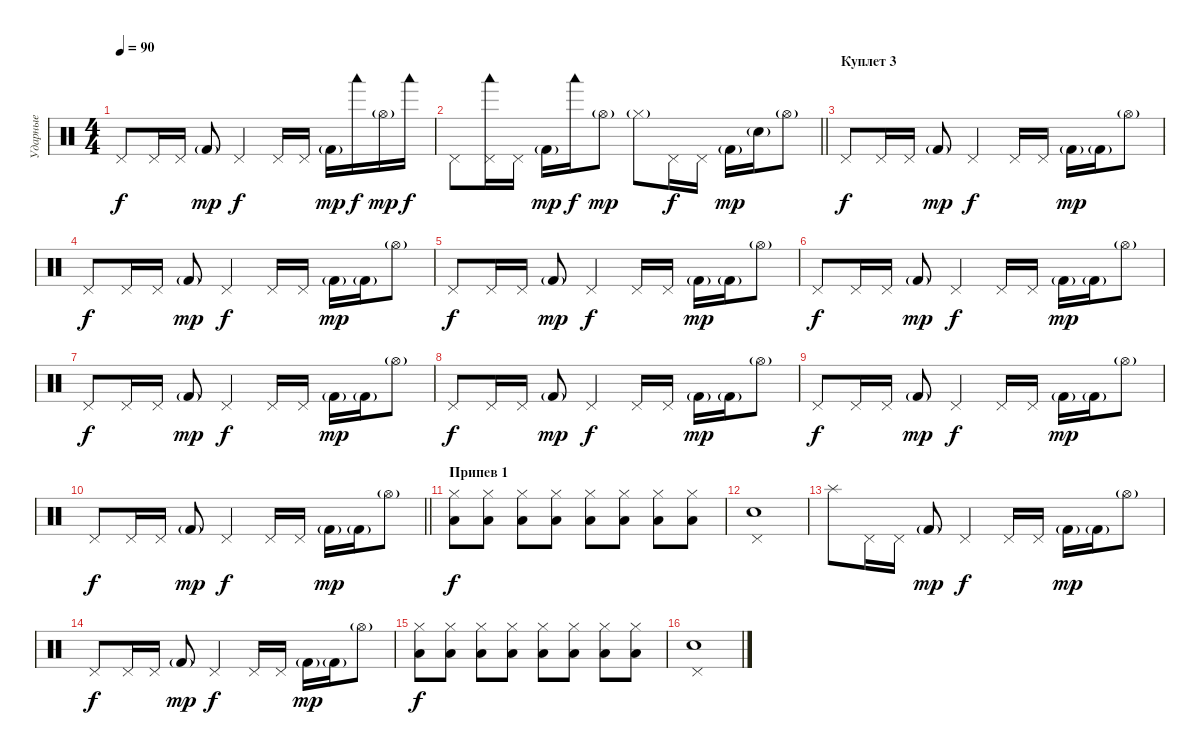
\track ("Ударные" "Ударные") {instrument percussion}
\staff {score}
\articulation defaults
\ts (4 4)
\tempo 90
\clef neutral
\ks c "Pedal Hi-Hat (hit)".8{dy f} "Pedal Hi-Hat (hit)".16 "Pedal Hi-Hat (hit)".16 "Kick (hit) 2"{g}.8{dy mp} "Pedal Hi-Hat (hit)".4{dy f} "Pedal Hi-Hat (hit)".16 "Pedal Hi-Hat (hit)".16 "Kick (hit) 2"{g}.16{dy mp} "Woodblock low (hit)".16{dy f} "Hi-Hat (open)"{g}.16{dy mp} "Woodblock low (hit)".16{dy f}
|
\barLineRight lightlight "Pedal Hi-Hat (hit)".8
("Woodblock low (hit)" "Pedal Hi-Hat (hit)").16 "Pedal Hi-Hat (hit)".16 "Kick (hit) 2"{g}.16{dy mp} "Woodblock low (hit)".16{dy f} "Hi-Hat (open)"{g}.8{dy mp} "Hi-Hat (closed)"{g}.8 "Pedal Hi-Hat (hit)".16{dy f} "Pedal Hi-Hat (hit)".16 "Kick (hit) 2"{g}.16{dy mp} "Snare (hit) 2"{g}.16 "Hi-Hat (open)"{g}.8 |
\section ("" "Куплет 3")
"Pedal Hi-Hat (hit)".8{dy f} "Pedal Hi-Hat (hit)".16 "Pedal Hi-Hat (hit)".16 "Kick (hit) 2"{g}.8{dy mp} "Pedal Hi-Hat (hit)".4{dy f} "Pedal Hi-Hat (hit)".16 "Pedal Hi-Hat (hit)".16 "Kick (hit) 2"{g}.16{dy mp} "Kick (hit) 2"{g}.16 "Hi-Hat (open)"{g}.8 |
"Pedal Hi-Hat (hit)".8{dy f} "Pedal Hi-Hat (hit)".16 "Pedal Hi-Hat (hit)".16 "Kick (hit) 2"{g}.8{dy mp} "Pedal Hi-Hat (hit)".4{dy f} "Pedal Hi-Hat (hit)".16 "Pedal Hi-Hat (hit)".16 "Kick (hit) 2"{g}.16{dy mp} "Kick (hit) 2"{g}.16 "Hi-Hat (open)"{g}.8 |
"Pedal Hi-Hat (hit)".8{dy f} "Pedal Hi-Hat (hit)".16 "Pedal Hi-Hat (hit)".16 "Kick (hit) 2"{g}.8{dy mp} "Pedal Hi-Hat (hit)".4{dy f} "Pedal Hi-Hat (hit)".16 "Pedal Hi-Hat (hit)".16 "Kick (hit) 2"{g}.16{dy mp} "Kick (hit) 2"{g}.16 "Hi-Hat (open)"{g}.8 |
"Pedal Hi-Hat (hit)".8{dy f} "Pedal Hi-Hat (hit)".16 "Pedal Hi-Hat (hit)".16 "Kick (hit) 2"{g}.8{dy mp} "Pedal Hi-Hat (hit)".4{dy f} "Pedal Hi-Hat (hit)".16 "Pedal Hi-Hat (hit)".16 "Kick (hit) 2"{g}.16{dy mp} "Kick (hit) 2"{g}.16 "Hi-Hat (open)"{g}.8 |
"Pedal Hi-Hat (hit)".8{dy f} "Pedal Hi-Hat (hit)".16 "Pedal Hi-Hat (hit)".16 "Kick (hit) 2"{g}.8{dy mp} "Pedal Hi-Hat (hit)".4{dy f} "Pedal Hi-Hat (hit)".16 "Pedal Hi-Hat (hit)".16 "Kick (hit) 2"{g}.16{dy mp} "Kick (hit) 2"{g}.16 "Hi-Hat (open)"{g}.8 |
"Pedal Hi-Hat (hit)".8{dy f} "Pedal Hi-Hat (hit)".16 "Pedal Hi-Hat (hit)".16 "Kick (hit) 2"{g}.8{dy mp} "Pedal Hi-Hat (hit)".4{dy f} "Pedal Hi-Hat (hit)".16 "Pedal Hi-Hat (hit)".16 "Kick (hit) 2"{g}.16{dy mp} "Kick (hit) 2"{g}.16 "Hi-Hat (open)"{g}.8 |
"Pedal Hi-Hat (hit)".8{dy f} "Pedal Hi-Hat (hit)".16 "Pedal Hi-Hat (hit)".16 "Kick (hit) 2"{g}.8{dy mp} "Pedal Hi-Hat (hit)".4{dy f} "Pedal Hi-Hat (hit)".16 "Pedal Hi-Hat (hit)".16 "Kick (hit) 2"{g}.16{dy mp} "Kick (hit) 2"{g}.16 "Hi-Hat (open)"{g}.8 |
\barLineRight lightlight "Pedal Hi-Hat (hit)".8{dy f} "Pedal Hi-Hat (hit)".16 "Pedal Hi-Hat (hit)".16 "Kick (hit) 2"{g}.8{dy mp} "Pedal Hi-Hat (hit)".4{dy f} "Pedal Hi-Hat (hit)".16 "Pedal Hi-Hat (hit)".16 "Kick (hit) 2"{g}.16{dy mp} "Kick (hit) 2"{g}.16 "Hi-Hat (open)"{g}.8
|
\section ("" "Припев 1")
("Low Floor Tom (hit)" "Hi-Hat (closed)").8{dy f} ("Low Floor Tom (hit)" "Hi-Hat (closed)").8 ("Low Floor Tom (hit)" "Hi-Hat (closed)").8 ("Low Floor Tom (hit)" "Hi-Hat (closed)").8 ("Low Floor Tom (hit)" "Hi-Hat (closed)").8 ("Low Floor Tom (hit)" "Hi-Hat (closed)").8 ("Low Floor Tom (hit)" "Hi-Hat (closed)").8 ("Low Floor Tom (hit)" "Hi-Hat (closed)").8 |
("Electric Snare (hit)" "Pedal Hi-Hat (hit)").1 |
"Splash (hit)".8 "Pedal Hi-Hat (hit)".16 "Pedal Hi-Hat (hit)".16 "Kick (hit) 2"{g}.8{dy mp} "Pedal Hi-Hat (hit)".4{dy f} "Pedal Hi-Hat (hit)".16 "Pedal Hi-Hat (hit)".16 "Kick (hit) 2"{g}.16{dy mp} "Kick (hit) 2"{g}.16 "Hi-Hat (open)"{g}.8 |
"Pedal Hi-Hat (hit)".8{dy f} "Pedal Hi-Hat (hit)".16 "Pedal Hi-Hat (hit)".16 "Kick (hit) 2"{g}.8{dy mp} "Pedal Hi-Hat (hit)".4{dy f} "Pedal Hi-Hat (hit)".16 "Pedal Hi-Hat (hit)".16 "Kick (hit) 2"{g}.16{dy mp} "Kick (hit) 2"{g}.16 "Hi-Hat (open)"{g}.8 |
("Low Floor Tom (hit)" "Hi-Hat (closed)").8{dy f} ("Low Floor Tom (hit)" "Hi-Hat (closed)").8 ("Low Floor Tom (hit)" "Hi-Hat (closed)").8 ("Low Floor Tom (hit)" "Hi-Hat (closed)").8 ("Low Floor Tom (hit)" "Hi-Hat (closed)").8 ("Low Floor Tom (hit)" "Hi-Hat (closed)").8 ("Low Floor Tom (hit)" "Hi-Hat (closed)").8 ("Low Floor Tom (hit)" "Hi-Hat (closed)").8 |
("Electric Snare (hit)" "Pedal Hi-Hat (hit)").1
